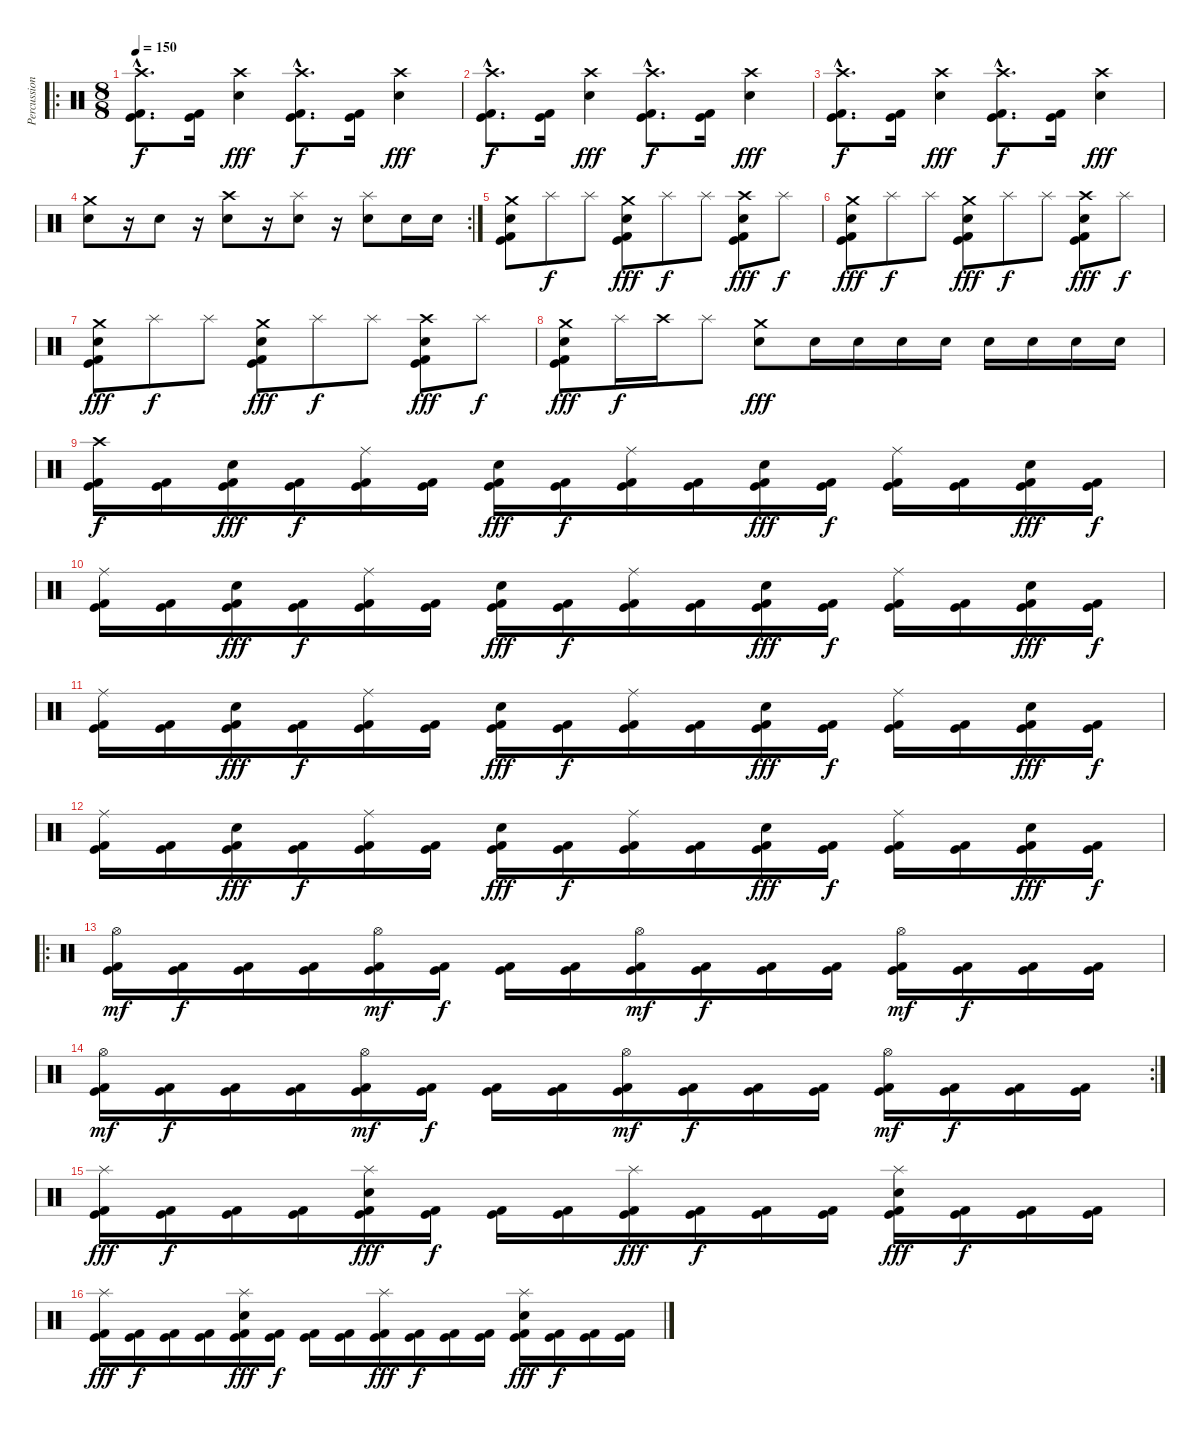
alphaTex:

\track ("Percussion" "Percussion") {instrument percussion}
\staff {score}
\articulation defaults
\ro
\ts (8 8)
\tempo 150
\clef neutral
\ks c
("Crash high (hit)"{hac} "Kick (hit)"{hac} "Kick (hit) 2"{hac}).8{d dy f} ("Kick (hit)" "Kick (hit) 2").16 ("Crash high (hit)" "Electric Snare (hit)").4{dy fff} ("Crash high (hit)"{hac} "Kick (hit)"{hac} "Kick (hit) 2"{hac}).8{d dy f} ("Kick (hit)" "Kick (hit) 2").16 ("Crash high (hit)" "Electric Snare (hit)").4{dy fff} |
("Crash high (hit)"{hac} "Kick (hit)"{hac} "Kick (hit) 2"{hac}).8{d dy f} ("Kick (hit)" "Kick (hit) 2").16 ("Crash high (hit)" "Electric Snare (hit)").4{dy fff} ("Crash high (hit)"{hac} "Kick (hit)"{hac} "Kick (hit) 2"{hac}).8{d dy f} ("Kick (hit)" "Kick (hit) 2").16 ("Crash high (hit)" "Electric Snare (hit)").4{dy fff} |
("Crash high (hit)"{hac} "Kick (hit)"{hac} "Kick (hit) 2"{hac}).8{d dy f} ("Kick (hit)" "Kick (hit) 2").16 ("Crash high (hit)" "Electric Snare (hit)").4{dy fff} ("Crash high (hit)"{hac} "Kick (hit)"{hac} "Kick (hit) 2"{hac}).8{d dy f} ("Kick (hit)" "Kick (hit) 2").16 ("Crash high (hit)" "Electric Snare (hit)").4{dy fff} |
\rc 2
("Crash medium (hit)" "Electric Snare (hit)").8 r.16 "Electric Snare (hit)".8 r.16 ("Crash high (hit)" "Electric Snare (hit)").8 r.16 ("Splash (hit)" "Electric Snare (hit)").8 r.16 ("Splash (hit)" "Electric Snare (hit)").8 "Electric Snare (hit)".16 "Electric Snare (hit)".16 |
("Crash medium (hit)" "Electric Snare (hit)" "Kick (hit)" "Kick (hit) 2").8 "Splash (hit)".8{dy f} "Splash (hit)".8 ("Crash medium (hit)" "Electric Snare (hit)" "Kick (hit)" "Kick (hit) 2").8{dy fff} "Splash (hit)".8{dy f} "Splash (hit)".8 ("Crash high (hit)" "Electric Snare (hit)" "Kick (hit)" "Kick (hit) 2").8{dy fff} "Splash (hit)".8{dy f} |
("Crash medium (hit)" "Electric Snare (hit)" "Kick (hit)" "Kick (hit) 2").8{dy fff} "Splash (hit)".8{dy f} "Splash (hit)".8 ("Crash medium (hit)" "Electric Snare (hit)" "Kick (hit)" "Kick (hit) 2").8{dy fff} "Splash (hit)".8{dy f} "Splash (hit)".8 ("Crash high (hit)" "Electric Snare (hit)" "Kick (hit)" "Kick (hit) 2").8{dy fff} "Splash (hit)".8{dy f} |
("Crash medium (hit)" "Electric Snare (hit)" "Kick (hit)" "Kick (hit) 2").8{dy fff} "Splash (hit)".8{dy f} "Splash (hit)".8 ("Crash medium (hit)" "Electric Snare (hit)" "Kick (hit)" "Kick (hit) 2").8{dy fff} "Splash (hit)".8{dy f} "Splash (hit)".8 ("Crash high (hit)" "Electric Snare (hit)" "Kick (hit)" "Kick (hit) 2").8{dy fff} "Splash (hit)".8{dy f} |
("Crash medium (hit)" "Electric Snare (hit)" "Kick (hit)" "Kick (hit) 2").8{dy fff} "Splash (hit)".16{dy f} "Crash high (hit)".16 "Splash (hit)".8 ("Crash medium (hit)" "Electric Snare (hit)").8{dy fff} "Electric Snare (hit)".16 "Electric Snare (hit)".16 "Electric Snare (hit)".16 "Electric Snare (hit)".16 "Electric Snare (hit)".16 "Electric Snare (hit)".16 "Electric Snare (hit)".16 "Electric Snare (hit)".16 |
("Crash high (hit)" "Kick (hit)" "Kick (hit) 2").16{dy f} ("Kick (hit)" "Kick (hit) 2").16 ("Electric Snare (hit)" "Kick (hit)" "Kick (hit) 2").16{dy fff} ("Kick (hit)" "Kick (hit) 2").16{dy f} ("Ride (middle)" "Kick (hit)" "Kick (hit) 2").16 ("Kick (hit)" "Kick (hit) 2").16 ("Electric Snare (hit)" "Kick (hit)" "Kick (hit) 2").16{dy fff} ("Kick (hit)" "Kick (hit) 2").16{dy f} ("Ride (middle)" "Kick (hit)" "Kick (hit) 2").16 ("Kick (hit)" "Kick (hit) 2").16 ("Electric Snare (hit)" "Kick (hit)" "Kick (hit) 2").16{dy fff} ("Kick (hit)" "Kick (hit) 2").16{dy f} ("Ride (middle)" "Kick (hit)" "Kick (hit) 2").16 ("Kick (hit)" "Kick (hit) 2").16 ("Electric Snare (hit)" "Kick (hit)" "Kick (hit) 2").16{dy fff} ("Kick (hit)" "Kick (hit) 2").16{dy f} |
("Ride (middle)" "Kick (hit)" "Kick (hit) 2").16 ("Kick (hit)" "Kick (hit) 2").16 ("Electric Snare (hit)" "Kick (hit)" "Kick (hit) 2").16{dy fff} ("Kick (hit)" "Kick (hit) 2").16{dy f} ("Ride (middle)" "Kick (hit)" "Kick (hit) 2").16 ("Kick (hit)" "Kick (hit) 2").16 ("Electric Snare (hit)" "Kick (hit)" "Kick (hit) 2").16{dy fff} ("Kick (hit)" "Kick (hit) 2").16{dy f} ("Ride (middle)" "Kick (hit)" "Kick (hit) 2").16 ("Kick (hit)" "Kick (hit) 2").16 ("Electric Snare (hit)" "Kick (hit)" "Kick (hit) 2").16{dy fff} ("Kick (hit)" "Kick (hit) 2").16{dy f} ("Ride (middle)" "Kick (hit)" "Kick (hit) 2").16 ("Kick (hit)" "Kick (hit) 2").16 ("Electric Snare (hit)" "Kick (hit)" "Kick (hit) 2").16{dy fff} ("Kick (hit)" "Kick (hit) 2").16{dy f} |
("Ride (middle)" "Kick (hit)" "Kick (hit) 2").16 ("Kick (hit)" "Kick (hit) 2").16 ("Electric Snare (hit)" "Kick (hit)" "Kick (hit) 2").16{dy fff} ("Kick (hit)" "Kick (hit) 2").16{dy f} ("Ride (middle)" "Kick (hit)" "Kick (hit) 2").16 ("Kick (hit)" "Kick (hit) 2").16 ("Electric Snare (hit)" "Kick (hit)" "Kick (hit) 2").16{dy fff} ("Kick (hit)" "Kick (hit) 2").16{dy f} ("Ride (middle)" "Kick (hit)" "Kick (hit) 2").16 ("Kick (hit)" "Kick (hit) 2").16 ("Electric Snare (hit)" "Kick (hit)" "Kick (hit) 2").16{dy fff} ("Kick (hit)" "Kick (hit) 2").16{dy f} ("Ride (middle)" "Kick (hit)" "Kick (hit) 2").16 ("Kick (hit)" "Kick (hit) 2").16 ("Electric Snare (hit)" "Kick (hit)" "Kick (hit) 2").16{dy fff} ("Kick (hit)" "Kick (hit) 2").16{dy f} |
("Ride (middle)" "Kick (hit)" "Kick (hit) 2").16 ("Kick (hit)" "Kick (hit) 2").16 ("Electric Snare (hit)" "Kick (hit)" "Kick (hit) 2").16{dy fff} ("Kick (hit)" "Kick (hit) 2").16{dy f} ("Ride (middle)" "Kick (hit)" "Kick (hit) 2").16 ("Kick (hit)" "Kick (hit) 2").16 ("Electric Snare (hit)" "Kick (hit)" "Kick (hit) 2").16{dy fff} ("Kick (hit)" "Kick (hit) 2").16{dy f} ("Ride (middle)" "Kick (hit)" "Kick (hit) 2").16 ("Kick (hit)" "Kick (hit) 2").16 ("Electric Snare (hit)" "Kick (hit)" "Kick (hit) 2").16{dy fff} ("Kick (hit)" "Kick (hit) 2").16{dy f} ("Ride (middle)" "Kick (hit)" "Kick (hit) 2").16 ("Kick (hit)" "Kick (hit) 2").16 ("Electric Snare (hit)" "Kick (hit)" "Kick (hit) 2").16{dy fff} ("Kick (hit)" "Kick (hit) 2").16{dy f} |
\ro
("Hi-Hat (open)" "Kick (hit)" "Kick (hit) 2").16{dy mf} ("Kick (hit)" "Kick (hit) 2").16{dy f} ("Kick (hit)" "Kick (hit) 2").16 ("Kick (hit)" "Kick (hit) 2").16 ("Hi-Hat (open)" "Kick (hit)" "Kick (hit) 2").16{dy mf} ("Kick (hit)" "Kick (hit) 2").16{dy f} ("Kick (hit)" "Kick (hit) 2").16 ("Kick (hit)" "Kick (hit) 2").16 ("Hi-Hat (open)" "Kick (hit)" "Kick (hit) 2").16{dy mf} ("Kick (hit)" "Kick (hit) 2").16{dy f} ("Kick (hit)" "Kick (hit) 2").16 ("Kick (hit)" "Kick (hit) 2").16 ("Hi-Hat (open)" "Kick (hit)" "Kick (hit) 2").16{dy mf} ("Kick (hit)" "Kick (hit) 2").16{dy f} ("Kick (hit)" "Kick (hit) 2").16 ("Kick (hit)" "Kick (hit) 2").16 |
\rc 2
("Hi-Hat (open)" "Kick (hit)" "Kick (hit) 2").16{dy mf} ("Kick (hit)" "Kick (hit) 2").16{dy f} ("Kick (hit)" "Kick (hit) 2").16 ("Kick (hit)" "Kick (hit) 2").16 ("Hi-Hat (open)" "Kick (hit)" "Kick (hit) 2").16{dy mf} ("Kick (hit)" "Kick (hit) 2").16{dy f} ("Kick (hit)" "Kick (hit) 2").16 ("Kick (hit)" "Kick (hit) 2").16 ("Hi-Hat (open)" "Kick (hit)" "Kick (hit) 2").16{dy mf} ("Kick (hit)" "Kick (hit) 2").16{dy f} ("Kick (hit)" "Kick (hit) 2").16 ("Kick (hit)" "Kick (hit) 2").16 ("Hi-Hat (open)" "Kick (hit)" "Kick (hit) 2").16{dy mf} ("Kick (hit)" "Kick (hit) 2").16{dy f} ("Kick (hit)" "Kick (hit) 2").16 ("Kick (hit)" "Kick (hit) 2").16 |
("Splash (hit)" "Kick (hit)" "Kick (hit) 2").16{dy fff} ("Kick (hit)" "Kick (hit) 2").16{dy f} ("Kick (hit)" "Kick (hit) 2").16 ("Kick (hit)" "Kick (hit) 2").16 ("Splash (hit)" "Electric Snare (hit)" "Kick (hit)" "Kick (hit) 2").16{dy fff} ("Kick (hit)" "Kick (hit) 2").16{dy f} ("Kick (hit)" "Kick (hit) 2").16 ("Kick (hit)" "Kick (hit) 2").16 ("Splash (hit)" "Kick (hit)" "Kick (hit) 2").16{dy fff} ("Kick (hit)" "Kick (hit) 2").16{dy f} ("Kick (hit)" "Kick (hit) 2").16 ("Kick (hit)" "Kick (hit) 2").16 ("Splash (hit)" "Electric Snare (hit)" "Kick (hit)" "Kick (hit) 2").16{dy fff} ("Kick (hit)" "Kick (hit) 2").16{dy f} ("Kick (hit)" "Kick (hit) 2").16 ("Kick (hit)" "Kick (hit) 2").16 |
("Splash (hit)" "Kick (hit)" "Kick (hit) 2").16{dy fff} ("Kick (hit)" "Kick (hit) 2").16{dy f} ("Kick (hit)" "Kick (hit) 2").16 ("Kick (hit)" "Kick (hit) 2").16 ("Splash (hit)" "Electric Snare (hit)" "Kick (hit)" "Kick (hit) 2").16{dy fff} ("Kick (hit)" "Kick (hit) 2").16{dy f} ("Kick (hit)" "Kick (hit) 2").16 ("Kick (hit)" "Kick (hit) 2").16 ("Splash (hit)" "Kick (hit)" "Kick (hit) 2").16{dy fff} ("Kick (hit)" "Kick (hit) 2").16{dy f} ("Kick (hit)" "Kick (hit) 2").16 ("Kick (hit)" "Kick (hit) 2").16 ("Splash (hit)" "Electric Snare (hit)" "Kick (hit)" "Kick (hit) 2").16{dy fff} ("Kick (hit)" "Kick (hit) 2").16{dy f} ("Kick (hit)" "Kick (hit) 2").16 ("Kick (hit)" "Kick (hit) 2").16
